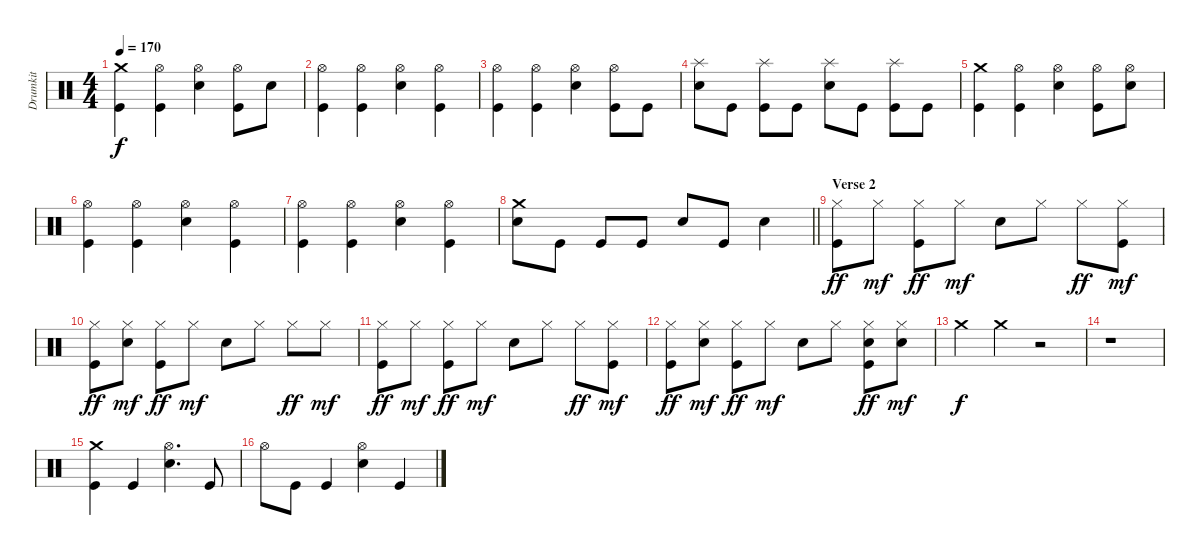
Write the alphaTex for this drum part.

\track ("Drumkit" "Drumkit") {instrument percussion}
\staff {score}
\articulation defaults
\ts (4 4)
\tempo 170
\clef neutral
\ks c
("Crash medium (hit)" "Kick (hit)").4{dy f} ("Hi-Hat (open)" "Kick (hit)").4 ("Hi-Hat (open)" "Snare (hit) 2").4 ("Hi-Hat (open)" "Kick (hit)").8 "Snare (hit) 2".8 |
("Hi-Hat (open)" "Kick (hit)").4 ("Hi-Hat (open)" "Kick (hit)").4 ("Hi-Hat (open)" "Snare (hit) 2").4 ("Hi-Hat (open)" "Kick (hit)").4 |
("Hi-Hat (open)" "Kick (hit)").4 ("Hi-Hat (open)" "Kick (hit)").4 ("Hi-Hat (open)" "Snare (hit) 2").4 ("Hi-Hat (open)" "Kick (hit)").8 "Kick (hit)".8 |
("Splash (hit)" "Snare (hit) 2").8 "Kick (hit)".8 ("Splash (hit)" "Kick (hit)").8 "Kick (hit)".8 ("Splash (hit)" "Snare (hit) 2").8 "Kick (hit)".8 ("Splash (hit)" "Kick (hit)").8 "Kick (hit)".8 |
("Crash medium (hit)" "Kick (hit)").4 ("Hi-Hat (open)" "Kick (hit)").4 ("Hi-Hat (open)" "Snare (hit) 2").4 ("Hi-Hat (open)" "Kick (hit)").8 ("Hi-Hat (open)" "Snare (hit) 2").8 |
("Hi-Hat (open)" "Kick (hit)").4 ("Hi-Hat (open)" "Kick (hit)").4 ("Hi-Hat (open)" "Snare (hit) 2").4 ("Hi-Hat (open)" "Kick (hit)").4 |
("Hi-Hat (open)" "Kick (hit)").4 ("Hi-Hat (open)" "Kick (hit)").4 ("Hi-Hat (open)" "Snare (hit) 2").4 ("Hi-Hat (open)" "Kick (hit)").4 |
\barLineRight lightlight
("Crash medium (hit)" "Snare (hit) 2").8 "Kick (hit)".8 "Kick (hit)".8 "Kick (hit)".8 "Snare (hit) 2".8 "Kick (hit)".8 "Snare (hit) 2".4 |
\section ("" "Verse 2")
("Hi-Hat (closed)" "Kick (hit)").8{dy ff} "Hi-Hat (closed)".8{dy mf} ("Hi-Hat (closed)" "Kick (hit)").8{dy ff} "Hi-Hat (closed)".8{dy mf} "Snare (hit) 2".8 "Hi-Hat (closed)".8 "Hi-Hat (closed)".8{dy ff} ("Hi-Hat (closed)" "Kick (hit)").8{dy mf} |
("Hi-Hat (closed)" "Kick (hit)").8{dy ff} ("Hi-Hat (closed)" "Snare (hit) 2").8{dy mf} ("Hi-Hat (closed)" "Kick (hit)").8{dy ff} "Hi-Hat (closed)".8{dy mf} "Snare (hit) 2".8 "Hi-Hat (closed)".8 "Hi-Hat (closed)".8{dy ff} "Hi-Hat (closed)".8{dy mf} |
("Hi-Hat (closed)" "Kick (hit)").8{dy ff} "Hi-Hat (closed)".8{dy mf} ("Hi-Hat (closed)" "Kick (hit)").8{dy ff} "Hi-Hat (closed)".8{dy mf} "Snare (hit) 2".8 "Hi-Hat (closed)".8 "Hi-Hat (closed)".8{dy ff} ("Hi-Hat (closed)" "Kick (hit)").8{dy mf} |
("Hi-Hat (closed)" "Kick (hit)").8{dy ff} ("Hi-Hat (closed)" "Snare (hit) 2").8{dy mf} ("Hi-Hat (closed)" "Kick (hit)").8{dy ff} "Hi-Hat (closed)".8{dy mf} "Snare (hit) 2".8 "Hi-Hat (closed)".8 ("Hi-Hat (closed)" "Snare (hit) 2" "Kick (hit)").8{dy ff} ("Hi-Hat (closed)" "Snare (hit) 2").8{dy mf} |
"Crash medium (hit)".4{dy f} "Crash medium (hit)".4 r.2 |
r.1 |
("Crash medium (hit)" "Kick (hit)").4 "Kick (hit)".4 ("Hi-Hat (open)" "Snare (hit) 2").4{d} "Kick (hit)".8 |
"Hi-Hat (open)".8 "Kick (hit)".8 "Kick (hit)".4 ("Hi-Hat (open)" "Snare (hit) 2").4 "Kick (hit)".4
